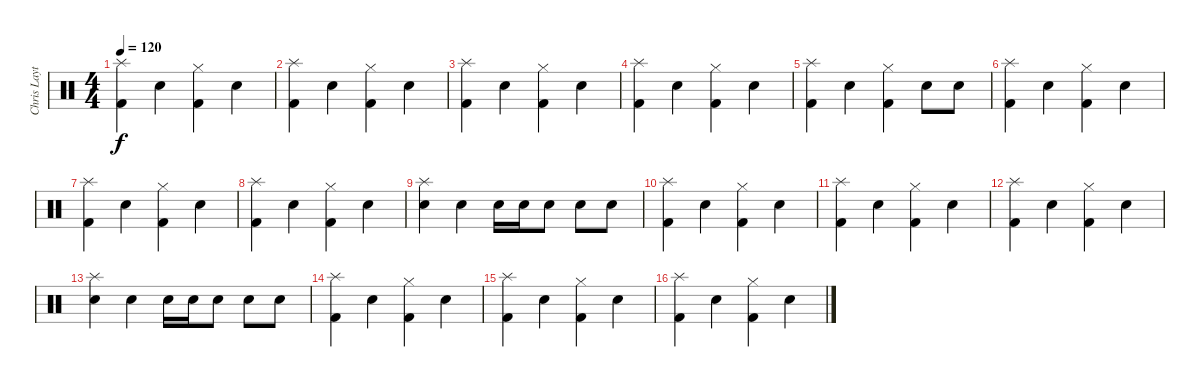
\track ("Chris Layton" "Chris Layt") {instrument percussion}
\staff {score}
\articulation defaults
\ts (4 4)
\tempo 120
\clef neutral
\ks c
("Kick (hit) 2" "Splash (hit)").4{dy f} "Snare (hit) 2".4 ("Kick (hit) 2" "Hi-Hat (closed)").4 "Snare (hit) 2".4 |
("Kick (hit) 2" "Splash (hit)").4 "Snare (hit) 2".4 ("Kick (hit) 2" "Hi-Hat (closed)").4 "Snare (hit) 2".4 |
("Kick (hit) 2" "Splash (hit)").4 "Snare (hit) 2".4 ("Kick (hit) 2" "Hi-Hat (closed)").4 "Snare (hit) 2".4 |
("Kick (hit) 2" "Splash (hit)").4 "Snare (hit) 2".4 ("Kick (hit) 2" "Hi-Hat (closed)").4 "Snare (hit) 2".4 |
("Kick (hit) 2" "Splash (hit)").4 "Snare (hit) 2".4 ("Kick (hit) 2" "Hi-Hat (closed)").4 "Snare (hit) 2".8 "Snare (hit) 2".8 |
("Kick (hit) 2" "Splash (hit)").4 "Snare (hit) 2".4 ("Kick (hit) 2" "Hi-Hat (closed)").4 "Snare (hit) 2".4 |
("Kick (hit) 2" "Splash (hit)").4 "Snare (hit) 2".4 ("Kick (hit) 2" "Hi-Hat (closed)").4 "Snare (hit) 2".4 |
("Kick (hit) 2" "Splash (hit)").4 "Snare (hit) 2".4 ("Kick (hit) 2" "Hi-Hat (closed)").4 "Snare (hit) 2".4 |
("Snare (hit) 2" "Splash (hit)").4 "Snare (hit) 2".4 "Snare (hit) 2".16 "Snare (hit) 2".16 "Snare (hit) 2".8 "Snare (hit) 2".8 "Snare (hit) 2".8 |
("Kick (hit) 2" "Splash (hit)").4 "Snare (hit) 2".4 ("Kick (hit) 2" "Hi-Hat (closed)").4 "Snare (hit) 2".4 |
("Kick (hit) 2" "Splash (hit)").4 "Snare (hit) 2".4 ("Kick (hit) 2" "Hi-Hat (closed)").4 "Snare (hit) 2".4 |
("Kick (hit) 2" "Splash (hit)").4 "Snare (hit) 2".4 ("Kick (hit) 2" "Hi-Hat (closed)").4 "Snare (hit) 2".4 |
("Snare (hit) 2" "Splash (hit)").4 "Snare (hit) 2".4 "Snare (hit) 2".16 "Snare (hit) 2".16 "Snare (hit) 2".8 "Snare (hit) 2".8 "Snare (hit) 2".8 |
("Kick (hit) 2" "Splash (hit)").4 "Snare (hit) 2".4 ("Kick (hit) 2" "Hi-Hat (closed)").4 "Snare (hit) 2".4 |
("Kick (hit) 2" "Splash (hit)").4 "Snare (hit) 2".4 ("Kick (hit) 2" "Hi-Hat (closed)").4 "Snare (hit) 2".4 |
("Kick (hit) 2" "Splash (hit)").4 "Snare (hit) 2".4 ("Kick (hit) 2" "Hi-Hat (closed)").4 "Snare (hit) 2".4
